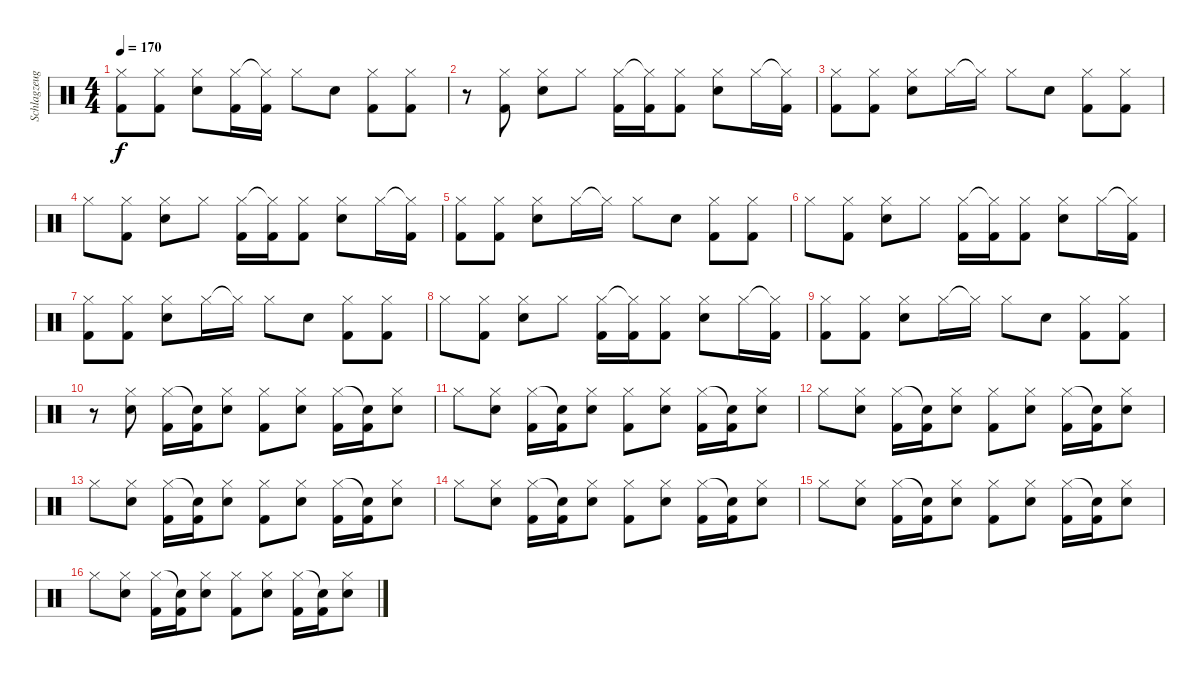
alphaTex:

\track ("Schlagzeug (Bela)" "Schlagzeug") {instrument percussion}
\staff {score}
\articulation defaults
\ts (4 4)
\tempo 170
\clef neutral
\ks c
("Hi-Hat (closed)" "Kick (hit) 2").8{dy f} ("Hi-Hat (closed)" "Kick (hit) 2").8 ("Hi-Hat (closed)" "Snare (hit) 2").8 ("Hi-Hat (closed)" "Kick (hit) 2").16 ("Hi-Hat (closed)"{t} "Kick (hit) 2").16 "Hi-Hat (closed)".8 "Snare (hit) 2".8 ("Hi-Hat (closed)" "Kick (hit) 2").8 ("Hi-Hat (closed)" "Kick (hit) 2").8 |
r.8 ("Hi-Hat (closed)" "Kick (hit) 2").8 ("Hi-Hat (closed)" "Snare (hit) 2").8 "Hi-Hat (closed)".8 ("Hi-Hat (closed)" "Kick (hit) 2").16 ("Hi-Hat (closed)"{t} "Kick (hit) 2").16 ("Hi-Hat (closed)" "Kick (hit) 2").8 ("Hi-Hat (closed)" "Snare (hit) 2").8 "Hi-Hat (closed)".16 ("Hi-Hat (closed)"{t} "Kick (hit) 2").16 |
("Hi-Hat (closed)" "Kick (hit) 2").8 ("Hi-Hat (closed)" "Kick (hit) 2").8 ("Hi-Hat (closed)" "Snare (hit) 2").8 "Hi-Hat (closed)".16 "Hi-Hat (closed)"{t}.16 "Hi-Hat (closed)".8 "Snare (hit) 2".8 ("Hi-Hat (closed)" "Kick (hit) 2").8 ("Hi-Hat (closed)" "Kick (hit) 2").8 |
"Hi-Hat (closed)".8 ("Hi-Hat (closed)" "Kick (hit) 2").8 ("Hi-Hat (closed)" "Snare (hit) 2").8 "Hi-Hat (closed)".8 ("Hi-Hat (closed)" "Kick (hit) 2").16 ("Hi-Hat (closed)"{t} "Kick (hit) 2").16 ("Hi-Hat (closed)" "Kick (hit) 2").8 ("Hi-Hat (closed)" "Snare (hit) 2").8 "Hi-Hat (closed)".16 ("Hi-Hat (closed)"{t} "Kick (hit) 2").16 |
("Hi-Hat (closed)" "Kick (hit) 2").8 ("Hi-Hat (closed)" "Kick (hit) 2").8 ("Hi-Hat (closed)" "Snare (hit) 2").8 "Hi-Hat (closed)".16 "Hi-Hat (closed)"{t}.16 "Hi-Hat (closed)".8 "Snare (hit) 2".8 ("Hi-Hat (closed)" "Kick (hit) 2").8 ("Hi-Hat (closed)" "Kick (hit) 2").8 |
"Hi-Hat (closed)".8 ("Hi-Hat (closed)" "Kick (hit) 2").8 ("Hi-Hat (closed)" "Snare (hit) 2").8 "Hi-Hat (closed)".8 ("Hi-Hat (closed)" "Kick (hit) 2").16 ("Hi-Hat (closed)"{t} "Kick (hit) 2").16 ("Hi-Hat (closed)" "Kick (hit) 2").8 ("Hi-Hat (closed)" "Snare (hit) 2").8 "Hi-Hat (closed)".16 ("Hi-Hat (closed)"{t} "Kick (hit) 2").16 |
("Hi-Hat (closed)" "Kick (hit) 2").8 ("Hi-Hat (closed)" "Kick (hit) 2").8 ("Hi-Hat (closed)" "Snare (hit) 2").8 "Hi-Hat (closed)".16 "Hi-Hat (closed)"{t}.16 "Hi-Hat (closed)".8 "Snare (hit) 2".8 ("Hi-Hat (closed)" "Kick (hit) 2").8 ("Hi-Hat (closed)" "Kick (hit) 2").8 |
"Hi-Hat (closed)".8 ("Hi-Hat (closed)" "Kick (hit) 2").8 ("Hi-Hat (closed)" "Snare (hit) 2").8 "Hi-Hat (closed)".8 ("Hi-Hat (closed)" "Kick (hit) 2").16 ("Hi-Hat (closed)"{t} "Kick (hit) 2").16 ("Hi-Hat (closed)" "Kick (hit) 2").8 ("Hi-Hat (closed)" "Snare (hit) 2").8 "Hi-Hat (closed)".16 ("Hi-Hat (closed)"{t} "Kick (hit) 2").16 |
("Hi-Hat (closed)" "Kick (hit) 2").8 ("Hi-Hat (closed)" "Kick (hit) 2").8 ("Hi-Hat (closed)" "Snare (hit) 2").8 "Hi-Hat (closed)".16 "Hi-Hat (closed)"{t}.16 "Hi-Hat (closed)".8 "Snare (hit) 2".8 ("Hi-Hat (closed)" "Kick (hit) 2").8 ("Hi-Hat (closed)" "Kick (hit) 2").8 |
r.8 ("Hi-Hat (closed)" "Snare (hit) 2").8 ("Hi-Hat (closed)" "Kick (hit) 2").16 ("Snare (hit)"{t} "Kick (hit) 2").16 ("Hi-Hat (closed)" "Snare (hit) 2").8 ("Hi-Hat (closed)" "Kick (hit) 2").8 ("Hi-Hat (closed)" "Snare (hit) 2").8 ("Hi-Hat (closed)" "Kick (hit) 2").16 ("Snare (hit)"{t} "Kick (hit) 2").16 ("Hi-Hat (closed)" "Snare (hit) 2").8 |
"Hi-Hat (closed)".8 ("Hi-Hat (closed)" "Snare (hit) 2").8 ("Hi-Hat (closed)" "Kick (hit) 2").16 ("Snare (hit)"{t} "Kick (hit) 2").16 ("Hi-Hat (closed)" "Snare (hit) 2").8 ("Hi-Hat (closed)" "Kick (hit) 2").8 ("Hi-Hat (closed)" "Snare (hit) 2").8 ("Hi-Hat (closed)" "Kick (hit) 2").16 ("Snare (hit)"{t} "Kick (hit) 2").16 ("Hi-Hat (closed)" "Snare (hit) 2").8 |
"Hi-Hat (closed)".8 ("Hi-Hat (closed)" "Snare (hit) 2").8 ("Hi-Hat (closed)" "Kick (hit) 2").16 ("Snare (hit)"{t} "Kick (hit) 2").16 ("Hi-Hat (closed)" "Snare (hit) 2").8 ("Hi-Hat (closed)" "Kick (hit) 2").8 ("Hi-Hat (closed)" "Snare (hit) 2").8 ("Hi-Hat (closed)" "Kick (hit) 2").16 ("Snare (hit)"{t} "Kick (hit) 2").16 ("Hi-Hat (closed)" "Snare (hit) 2").8 |
"Hi-Hat (closed)".8 ("Hi-Hat (closed)" "Snare (hit) 2").8 ("Hi-Hat (closed)" "Kick (hit) 2").16 ("Snare (hit)"{t} "Kick (hit) 2").16 ("Hi-Hat (closed)" "Snare (hit) 2").8 ("Hi-Hat (closed)" "Kick (hit) 2").8 ("Hi-Hat (closed)" "Snare (hit) 2").8 ("Hi-Hat (closed)" "Kick (hit) 2").16 ("Snare (hit)"{t} "Kick (hit) 2").16 ("Hi-Hat (closed)" "Snare (hit) 2").8 |
"Hi-Hat (closed)".8 ("Hi-Hat (closed)" "Snare (hit) 2").8 ("Hi-Hat (closed)" "Kick (hit) 2").16 ("Snare (hit)"{t} "Kick (hit) 2").16 ("Hi-Hat (closed)" "Snare (hit) 2").8 ("Hi-Hat (closed)" "Kick (hit) 2").8 ("Hi-Hat (closed)" "Snare (hit) 2").8 ("Hi-Hat (closed)" "Kick (hit) 2").16 ("Snare (hit)"{t} "Kick (hit) 2").16 ("Hi-Hat (closed)" "Snare (hit) 2").8 |
"Hi-Hat (closed)".8 ("Hi-Hat (closed)" "Snare (hit) 2").8 ("Hi-Hat (closed)" "Kick (hit) 2").16 ("Snare (hit)"{t} "Kick (hit) 2").16 ("Hi-Hat (closed)" "Snare (hit) 2").8 ("Hi-Hat (closed)" "Kick (hit) 2").8 ("Hi-Hat (closed)" "Snare (hit) 2").8 ("Hi-Hat (closed)" "Kick (hit) 2").16 ("Snare (hit)"{t} "Kick (hit) 2").16 ("Hi-Hat (closed)" "Snare (hit) 2").8 |
"Hi-Hat (closed)".8 ("Hi-Hat (closed)" "Snare (hit) 2").8 ("Hi-Hat (closed)" "Kick (hit) 2").16 ("Snare (hit)"{t} "Kick (hit) 2").16 ("Hi-Hat (closed)" "Snare (hit) 2").8 ("Hi-Hat (closed)" "Kick (hit) 2").8 ("Hi-Hat (closed)" "Snare (hit) 2").8 ("Hi-Hat (closed)" "Kick (hit) 2").16 ("Snare (hit)"{t} "Kick (hit) 2").16 ("Hi-Hat (closed)" "Snare (hit) 2").8
